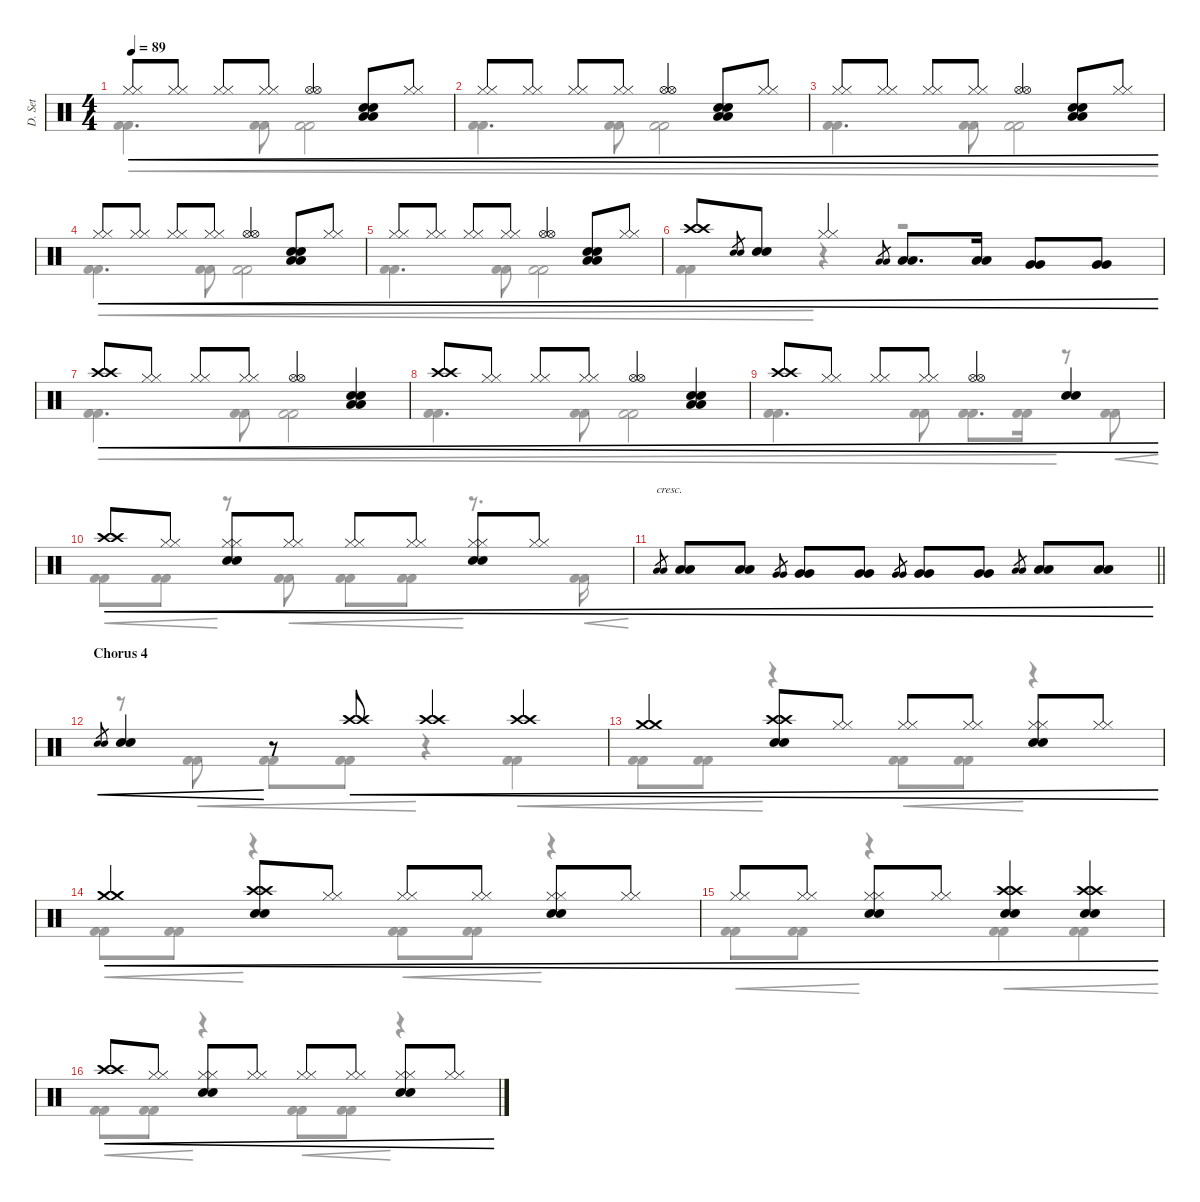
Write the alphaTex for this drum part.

\defaultSystemsLayout 4
\hideDynamics
\bracketExtendMode groupsimilarinstruments
\otherSystemsTrackNameOrientation horizontal
\track ("Drumset" "D. Set") {instrument percussion}
\staff {score}
\articulation defaults
\voice
\ts (4 4)
\tempo 89
\clef neutral
\ks c
("Hi-Hat (closed)" "Hi-Hat (closed)").8{cre dy f beam Up} ("Hi-Hat (closed)" "Hi-Hat (closed)").8{cre beam Up} ("Hi-Hat (closed)" "Hi-Hat (closed)").8{cre beam Up} ("Hi-Hat (closed)" "Hi-Hat (closed)").8{cre beam Up} ("Hi-Hat (open)" "Hi-Hat (open)").4{cre beam Up} ("Low Floor Tom (hit)" "Low Floor Tom (hit)" "Electric Snare (hit)" "Electric Snare (hit)").8{cre beam Up} ("Hi-Hat (closed)" "Hi-Hat (closed)").8{cre beam Up} |
("Hi-Hat (closed)" "Hi-Hat (closed)").8{cre beam Up} ("Hi-Hat (closed)" "Hi-Hat (closed)").8{cre beam Up} ("Hi-Hat (closed)" "Hi-Hat (closed)").8{cre beam Up} ("Hi-Hat (closed)" "Hi-Hat (closed)").8{cre beam Up} ("Hi-Hat (open)" "Hi-Hat (open)").4{cre beam Up} ("Low Floor Tom (hit)" "Low Floor Tom (hit)" "Electric Snare (hit)" "Electric Snare (hit)").8{cre beam Up} ("Hi-Hat (closed)" "Hi-Hat (closed)").8{cre beam Up} |
("Hi-Hat (closed)" "Hi-Hat (closed)").8{cre beam Up} ("Hi-Hat (closed)" "Hi-Hat (closed)").8{cre beam Up} ("Hi-Hat (closed)" "Hi-Hat (closed)").8{cre beam Up} ("Hi-Hat (closed)" "Hi-Hat (closed)").8{cre beam Up} ("Hi-Hat (open)" "Hi-Hat (open)").4{cre beam Up} ("Low Floor Tom (hit)" "Low Floor Tom (hit)" "Electric Snare (hit)" "Electric Snare (hit)").8{cre beam Up} ("Hi-Hat (closed)" "Hi-Hat (closed)").8{cre beam Up} |
("Hi-Hat (closed)" "Hi-Hat (closed)").8{cre beam Up} ("Hi-Hat (closed)" "Hi-Hat (closed)").8{cre beam Up} ("Hi-Hat (closed)" "Hi-Hat (closed)").8{cre beam Up} ("Hi-Hat (closed)" "Hi-Hat (closed)").8{cre beam Up} ("Hi-Hat (open)" "Hi-Hat (open)").4{cre beam Up} ("Low Floor Tom (hit)" "Low Floor Tom (hit)" "Electric Snare (hit)" "Electric Snare (hit)").8{cre beam Up} ("Hi-Hat (closed)" "Hi-Hat (closed)").8{cre beam Up} |
("Hi-Hat (closed)" "Hi-Hat (closed)").8{cre beam Up} ("Hi-Hat (closed)" "Hi-Hat (closed)").8{cre beam Up} ("Hi-Hat (closed)" "Hi-Hat (closed)").8{cre beam Up} ("Hi-Hat (closed)" "Hi-Hat (closed)").8{cre beam Up} ("Hi-Hat (open)" "Hi-Hat (open)").4{cre beam Up} ("Low Floor Tom (hit)" "Low Floor Tom (hit)" "Electric Snare (hit)" "Electric Snare (hit)").8{cre beam Up} ("Hi-Hat (closed)" "Hi-Hat (closed)").8{cre beam Up} |
("Crash high (hit)" "Crash high (hit)").8{cre beam Up} ("Electric Snare (hit)" "Electric Snare (hit)").8{gr cre beam Up} ("Electric Snare (hit)" "Electric Snare (hit)").8{cre beam Up} ("Hi-Hat (closed)" "Hi-Hat (closed)").4{cre beam Up} ("Low Tom (hit)" "Low Tom (hit)").8{gr cre beam Up} ("Low Tom (hit)" "Low Tom (hit)").8{d cre beam Up} ("Low Tom (hit)" "Low Tom (hit)").16{cre beam Up} ("Very Low Tom (hit)" "Very Low Tom (hit)").8{cre beam Up} ("Very Low Tom (hit)" "Very Low Tom (hit)").8{cre beam Up} |
("Crash high (hit)" "Crash high (hit)").8{cre beam Up} ("Hi-Hat (closed)" "Hi-Hat (closed)").8{cre beam Up} ("Hi-Hat (closed)" "Hi-Hat (closed)").8{cre beam Up} ("Hi-Hat (closed)" "Hi-Hat (closed)").8{cre beam Up} ("Hi-Hat (open)" "Hi-Hat (open)").4{cre beam Up} ("Low Floor Tom (hit)" "Low Floor Tom (hit)" "Electric Snare (hit)" "Electric Snare (hit)").4{cre beam Up} |
("Crash high (hit)" "Crash high (hit)").8{cre beam Up} ("Hi-Hat (closed)" "Hi-Hat (closed)").8{cre beam Up} ("Hi-Hat (closed)" "Hi-Hat (closed)").8{cre beam Up} ("Hi-Hat (closed)" "Hi-Hat (closed)").8{cre beam Up} ("Hi-Hat (open)" "Hi-Hat (open)").4{cre beam Up} ("Low Floor Tom (hit)" "Low Floor Tom (hit)" "Electric Snare (hit)" "Electric Snare (hit)").4{cre beam Up} |
("Crash high (hit)" "Crash high (hit)").8{cre beam Up} ("Hi-Hat (closed)" "Hi-Hat (closed)").8{cre beam Up} ("Hi-Hat (closed)" "Hi-Hat (closed)").8{cre beam Up} ("Hi-Hat (closed)" "Hi-Hat (closed)").8{cre beam Up} ("Hi-Hat (open)" "Hi-Hat (open)").4{cre beam Up} ("Electric Snare (hit)" "Electric Snare (hit)").4{cre beam Up} |
("Crash high (hit)" "Crash high (hit)").8{cre beam Up} ("Hi-Hat (closed)" "Hi-Hat (closed)").8{cre beam Up} ("Electric Snare (hit)" "Electric Snare (hit)" "Hi-Hat (closed)" "Hi-Hat (closed)").8{cre beam Up} ("Hi-Hat (closed)" "Hi-Hat (closed)").8{cre beam Up} ("Hi-Hat (closed)" "Hi-Hat (closed)").8{cre beam Up} ("Hi-Hat (closed)" "Hi-Hat (closed)").8{cre beam Up} ("Electric Snare (hit)" "Electric Snare (hit)" "Hi-Hat (closed)" "Hi-Hat (closed)").8{cre beam Up} ("Hi-Hat (closed)" "Hi-Hat (closed)").8{cre beam Up} |
\barLineRight lightlight
("Low Tom (hit)" "Low Tom (hit)").8{txt "cresc." gr cre beam Up} ("Low Tom (hit)" "Low Tom (hit)").8{cre beam Up} ("Low Tom (hit)" "Low Tom (hit)").8{cre beam Up} ("Very Low Tom (hit)" "Very Low Tom (hit)").8{gr cre beam Up} ("Very Low Tom (hit)" "Very Low Tom (hit)").8{cre beam Up} ("Very Low Tom (hit)" "Very Low Tom (hit)").8{cre beam Up} ("Very Low Tom (hit)" "Very Low Tom (hit)").8{gr cre beam Up} ("Very Low Tom (hit)" "Very Low Tom (hit)").8{cre beam Up} ("Very Low Tom (hit)" "Very Low Tom (hit)").8{cre beam Up} ("Low Floor Tom (hit)" "Low Floor Tom (hit)").8{gr cre beam Up} ("Low Floor Tom (hit)" "Low Floor Tom (hit)").8{cre beam Up} ("Low Floor Tom (hit)" "Low Floor Tom (hit)").8{cre beam Up} |
\section ("" "Chorus 4")
("Electric Snare (hit)" "Electric Snare (hit)").8{gr cre dy fff beam Up} ("Electric Snare (hit)" "Electric Snare (hit)").4{cre beam Up} r.8 ("Crash high (hit)" "Crash high (hit)").8{cre beam Up} ("Crash high (hit)" "Crash high (hit)").4{cre beam Up} ("Crash high (hit)" "Crash high (hit)").4{cre beam Up} |
("Crash medium (hit)" "Crash medium (hit)").4{cre beam Up} ("Electric Snare (hit)" "Electric Snare (hit)" "Crash high (hit)" "Crash high (hit)").8{cre beam Up} ("Hi-Hat (closed)" "Hi-Hat (closed)").8{cre beam Up} ("Hi-Hat (closed)" "Hi-Hat (closed)").8{cre beam Up} ("Hi-Hat (closed)" "Hi-Hat (closed)").8{cre beam Up} ("Electric Snare (hit)" "Electric Snare (hit)" "Hi-Hat (closed)" "Hi-Hat (closed)").8{cre beam Up} ("Hi-Hat (closed)" "Hi-Hat (closed)").8{cre beam Up} |
("Crash medium (hit)" "Crash medium (hit)").4{cre beam Up} ("Electric Snare (hit)" "Electric Snare (hit)" "Crash high (hit)" "Crash high (hit)").8{cre beam Up} ("Hi-Hat (closed)" "Hi-Hat (closed)").8{cre beam Up} ("Hi-Hat (closed)" "Hi-Hat (closed)").8{cre beam Up} ("Hi-Hat (closed)" "Hi-Hat (closed)").8{cre beam Up} ("Electric Snare (hit)" "Electric Snare (hit)" "Hi-Hat (closed)" "Hi-Hat (closed)").8{cre beam Up} ("Hi-Hat (closed)" "Hi-Hat (closed)").8{cre beam Up} |
("Hi-Hat (closed)" "Hi-Hat (closed)").8{cre beam Up} ("Hi-Hat (closed)" "Hi-Hat (closed)").8{cre beam Up} ("Electric Snare (hit)" "Electric Snare (hit)" "Hi-Hat (closed)" "Hi-Hat (closed)").8{cre beam Up} ("Hi-Hat (closed)" "Hi-Hat (closed)").8{cre beam Up} ("Electric Snare (hit)" "Electric Snare (hit)" "Crash high (hit)" "Crash high (hit)").4{cre beam Up} ("Electric Snare (hit)" "Electric Snare (hit)" "Crash high (hit)" "Crash high (hit)").4{cre beam Up} |
("Crash high (hit)" "Crash high (hit)").8{cre beam Up} ("Hi-Hat (closed)" "Hi-Hat (closed)").8{cre beam Up} ("Electric Snare (hit)" "Electric Snare (hit)" "Hi-Hat (closed)" "Hi-Hat (closed)").8{cre beam Up} ("Hi-Hat (closed)" "Hi-Hat (closed)").8{cre beam Up} ("Hi-Hat (closed)" "Hi-Hat (closed)").8{cre beam Up} ("Hi-Hat (closed)" "Hi-Hat (closed)").8{cre beam Up} ("Electric Snare (hit)" "Electric Snare (hit)" "Hi-Hat (closed)" "Hi-Hat (closed)").8{cre beam Up} ("Hi-Hat (closed)" "Hi-Hat (closed)").8{cre beam Up}
\voice
\clef neutral
\ottava regular
\simile none
\ks c
("Kick (hit) 2" "Kick (hit) 2").4{d cre dy f beam Down} ("Kick (hit) 2" "Kick (hit) 2").8{cre beam Down} ("Kick (hit) 2" "Kick (hit) 2").2{cre beam Down} |
("Kick (hit) 2" "Kick (hit) 2").4{d cre beam Down} ("Kick (hit) 2" "Kick (hit) 2").8{cre beam Down} ("Kick (hit) 2" "Kick (hit) 2").2{cre beam Down} |
("Kick (hit) 2" "Kick (hit) 2").4{d cre beam Down} ("Kick (hit) 2" "Kick (hit) 2").8{cre beam Down} ("Kick (hit) 2" "Kick (hit) 2").2{cre beam Down} |
("Kick (hit) 2" "Kick (hit) 2").4{d cre beam Down} ("Kick (hit) 2" "Kick (hit) 2").8{cre beam Down} ("Kick (hit) 2" "Kick (hit) 2").2{cre beam Down} |
("Kick (hit) 2" "Kick (hit) 2").4{d cre beam Down} ("Kick (hit) 2" "Kick (hit) 2").8{cre beam Down} ("Kick (hit) 2" "Kick (hit) 2").2{cre beam Down} |
("Kick (hit) 2" "Kick (hit) 2").4{cre beam Down} r.4 r.2 |
("Kick (hit) 2" "Kick (hit) 2").4{d cre beam Down} ("Kick (hit) 2" "Kick (hit) 2").8{cre beam Down} ("Kick (hit) 2" "Kick (hit) 2").2{cre beam Down} |
("Kick (hit) 2" "Kick (hit) 2").4{d cre beam Down} ("Kick (hit) 2" "Kick (hit) 2").8{cre beam Down} ("Kick (hit) 2" "Kick (hit) 2").2{cre beam Down} |
("Kick (hit) 2" "Kick (hit) 2").4{d cre beam Down} ("Kick (hit) 2" "Kick (hit) 2").8{cre beam Down} ("Kick (hit) 2" "Kick (hit) 2").8{d cre beam Down} ("Kick (hit) 2" "Kick (hit) 2").16{cre beam Down} r.8 ("Kick (hit) 2" "Kick (hit) 2").8{cre beam Down} |
("Kick (hit) 2" "Kick (hit) 2").8{cre beam Down} ("Kick (hit) 2" "Kick (hit) 2").8{cre beam Down} r.8 ("Kick (hit) 2" "Kick (hit) 2").8{cre beam Down} ("Kick (hit) 2" "Kick (hit) 2").8{cre beam Down} ("Kick (hit) 2" "Kick (hit) 2").8{cre beam Down} r.8{d} ("Kick (hit) 2" "Kick (hit) 2").16{cre beam Down} |
\barLineRight lightlight
|
r.8 ("Kick (hit) 2" "Kick (hit) 2").8{cre dy fff beam Down} ("Kick (hit) 2" "Kick (hit) 2").8{cre beam Down} ("Kick (hit) 2" "Kick (hit) 2").8{cre beam Down} r.4 ("Kick (hit) 2" "Kick (hit) 2").4{cre beam Down} |
("Kick (hit) 2" "Kick (hit) 2").8{cre beam Down} ("Kick (hit) 2" "Kick (hit) 2").8{cre beam Down} r.4 ("Kick (hit) 2" "Kick (hit) 2").8{cre beam Down} ("Kick (hit) 2" "Kick (hit) 2").8{cre beam Down} r.4 |
("Kick (hit) 2" "Kick (hit) 2").8{cre beam Down} ("Kick (hit) 2" "Kick (hit) 2").8{cre beam Down} r.4 ("Kick (hit) 2" "Kick (hit) 2").8{cre beam Down} ("Kick (hit) 2" "Kick (hit) 2").8{cre beam Down} r.4 |
("Kick (hit) 2" "Kick (hit) 2").8{cre beam Down} ("Kick (hit) 2" "Kick (hit) 2").8{cre beam Down} r.4 ("Kick (hit) 2" "Kick (hit) 2").4{cre beam Down} ("Kick (hit) 2" "Kick (hit) 2").4{cre beam Down} |
("Kick (hit) 2" "Kick (hit) 2").8{cre beam Down} ("Kick (hit) 2" "Kick (hit) 2").8{cre beam Down} r.4 ("Kick (hit) 2" "Kick (hit) 2").8{cre beam Down} ("Kick (hit) 2" "Kick (hit) 2").8{cre beam Down} r.4
